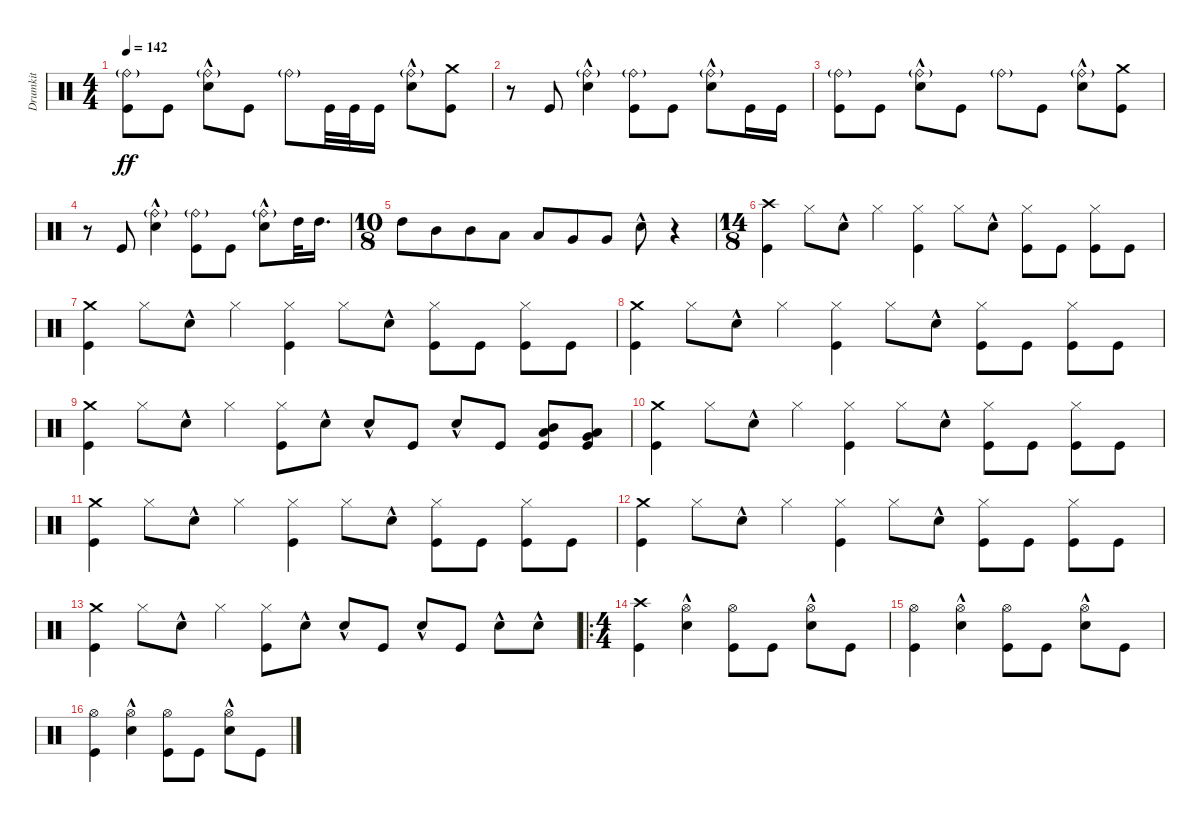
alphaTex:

\track ("Drumkit" "Drumkit") {instrument percussion}
\staff {score}
\articulation defaults
\ts (4 4)
\tempo 142
\clef neutral
\ks c
("Ride (bell)"{g} "Kick (hit)").8{dy ff} "Kick (hit)".8 ("Snare (hit) 2"{hac} "Ride (bell)"{g}).8 "Kick (hit)".8 "Ride (bell)"{g}.8 "Kick (hit)".32 "Kick (hit)".32 "Kick (hit)".16 ("Snare (hit) 2"{hac} "Ride (bell)"{g}).8 ("Kick (hit)" "Crash medium (hit)").8 |
r.8 "Kick (hit)".8 ("Snare (hit) 2"{hac} "Ride (bell)"{g}).4 ("Kick (hit)" "Ride (bell)"{g}).8 "Kick (hit)".8 ("Snare (hit) 2"{hac} "Ride (bell)"{g}).8 "Kick (hit)".16 "Kick (hit)".16 |
("Ride (bell)"{g} "Kick (hit)").8 "Kick (hit)".8 ("Snare (hit) 2"{hac} "Ride (bell)"{g}).8 "Kick (hit)".8 "Ride (bell)"{g}.8 "Kick (hit)".8 ("Snare (hit) 2"{hac} "Ride (bell)"{g}).8 ("Kick (hit)" "Crash medium (hit)").8 |
r.8 "Kick (hit)".8 ("Snare (hit) 2"{hac} "Ride (bell)"{g}).4 ("Kick (hit)" "Ride (bell)"{g}).8 "Kick (hit)".8 ("Snare (hit) 2"{hac} "Ride (bell)"{g}).8 "High Tom (hit)".32 "High Tom (hit)".16{d} |
\ts (10 8)
"High Tom (hit)".8 "Mid Tom (hit)".8 "Mid Tom (hit)".8 "Low Tom (hit)".8 "Low Tom (hit)".8 "Very Low Tom (hit)".8 "Very Low Tom (hit)".8 "Snare (hit) 2"{hac}.8 r.4 |
\ts (14 8)
("Crash high (hit)" "Kick (hit)").4 "Hi-Hat (closed)".8 "Snare (hit) 2"{hac}.8 "Hi-Hat (closed)".4 ("Hi-Hat (closed)" "Kick (hit)").4 "Hi-Hat (closed)".8 "Snare (hit) 2"{hac}.8 ("Hi-Hat (closed)" "Kick (hit)").8 "Kick (hit)".8 ("Hi-Hat (closed)" "Kick (hit)").8 "Kick (hit)".8 |
("Crash medium (hit)" "Kick (hit)").4 "Hi-Hat (closed)".8 "Snare (hit) 2"{hac}.8 "Hi-Hat (closed)".4 ("Hi-Hat (closed)" "Kick (hit)").4 "Hi-Hat (closed)".8 "Snare (hit) 2"{hac}.8 ("Hi-Hat (closed)" "Kick (hit)").8 "Kick (hit)".8 ("Hi-Hat (closed)" "Kick (hit)").8 "Kick (hit)".8 |
("Crash medium (hit)" "Kick (hit)").4 "Hi-Hat (closed)".8 "Snare (hit) 2"{hac}.8 "Hi-Hat (closed)".4 ("Hi-Hat (closed)" "Kick (hit)").4 "Hi-Hat (closed)".8 "Snare (hit) 2"{hac}.8 ("Hi-Hat (closed)" "Kick (hit)").8 "Kick (hit)".8 ("Hi-Hat (closed)" "Kick (hit)").8 "Kick (hit)".8 |
("Crash medium (hit)" "Kick (hit)").4 "Hi-Hat (closed)".8 "Snare (hit) 2"{hac}.8 "Hi-Hat (closed)".4 ("Hi-Hat (closed)" "Kick (hit)").8 "Snare (hit) 2"{hac}.8 "Snare (hit) 2"{hac}.8 "Kick (hit)".8 "Snare (hit) 2"{hac}.8 "Kick (hit)".8 ("Mid Tom (hit)" "Low Tom (hit)" "Kick (hit)").8 ("Very Low Tom (hit)" "Low Tom (hit)" "Kick (hit)").8 |
("Crash medium (hit)" "Kick (hit)").4 "Hi-Hat (closed)".8 "Snare (hit) 2"{hac}.8 "Hi-Hat (closed)".4 ("Hi-Hat (closed)" "Kick (hit)").4 "Hi-Hat (closed)".8 "Snare (hit) 2"{hac}.8 ("Hi-Hat (closed)" "Kick (hit)").8 "Kick (hit)".8 ("Hi-Hat (closed)" "Kick (hit)").8 "Kick (hit)".8 |
("Crash medium (hit)" "Kick (hit)").4 "Hi-Hat (closed)".8 "Snare (hit) 2"{hac}.8 "Hi-Hat (closed)".4 ("Hi-Hat (closed)" "Kick (hit)").4 "Hi-Hat (closed)".8 "Snare (hit) 2"{hac}.8 ("Hi-Hat (closed)" "Kick (hit)").8 "Kick (hit)".8 ("Kick (hit)" "Hi-Hat (closed)").8 "Kick (hit)".8 |
("Crash medium (hit)" "Kick (hit)").4 "Hi-Hat (closed)".8 "Snare (hit) 2"{hac}.8 "Hi-Hat (closed)".4 ("Hi-Hat (closed)" "Kick (hit)").4 "Hi-Hat (closed)".8 "Snare (hit) 2"{hac}.8 ("Hi-Hat (closed)" "Kick (hit)").8 "Kick (hit)".8 ("Hi-Hat (closed)" "Kick (hit)").8 "Kick (hit)".8 |
("Crash medium (hit)" "Kick (hit)").4 "Hi-Hat (closed)".8 "Snare (hit) 2"{hac}.8 "Hi-Hat (closed)".4 ("Hi-Hat (closed)" "Kick (hit)").8 "Snare (hit) 2"{hac}.8 "Snare (hit) 2"{hac}.8 "Kick (hit)".8 "Snare (hit) 2"{hac}.8 "Kick (hit)".8 "Snare (hit) 2"{hac}.8 "Snare (hit) 2"{hac}.8 |
\ro
\ts (4 4)
("Kick (hit)" "Crash high (hit)").4 ("Snare (hit) 2"{hac} "Hi-Hat (open)").4 ("Kick (hit)" "Hi-Hat (open)").8 "Kick (hit)".8 ("Snare (hit) 2"{hac} "Hi-Hat (open)").8 "Kick (hit)".8 |
("Kick (hit)" "Hi-Hat (open)").4 ("Snare (hit) 2"{hac} "Hi-Hat (open)").4 ("Kick (hit)" "Hi-Hat (open)").8 "Kick (hit)".8 ("Snare (hit) 2"{hac} "Hi-Hat (open)").8 "Kick (hit)".8 |
("Kick (hit)" "Hi-Hat (open)").4 ("Snare (hit) 2"{hac} "Hi-Hat (open)").4 ("Kick (hit)" "Hi-Hat (open)").8 "Kick (hit)".8 ("Snare (hit) 2"{hac} "Hi-Hat (open)").8 "Kick (hit)".8
